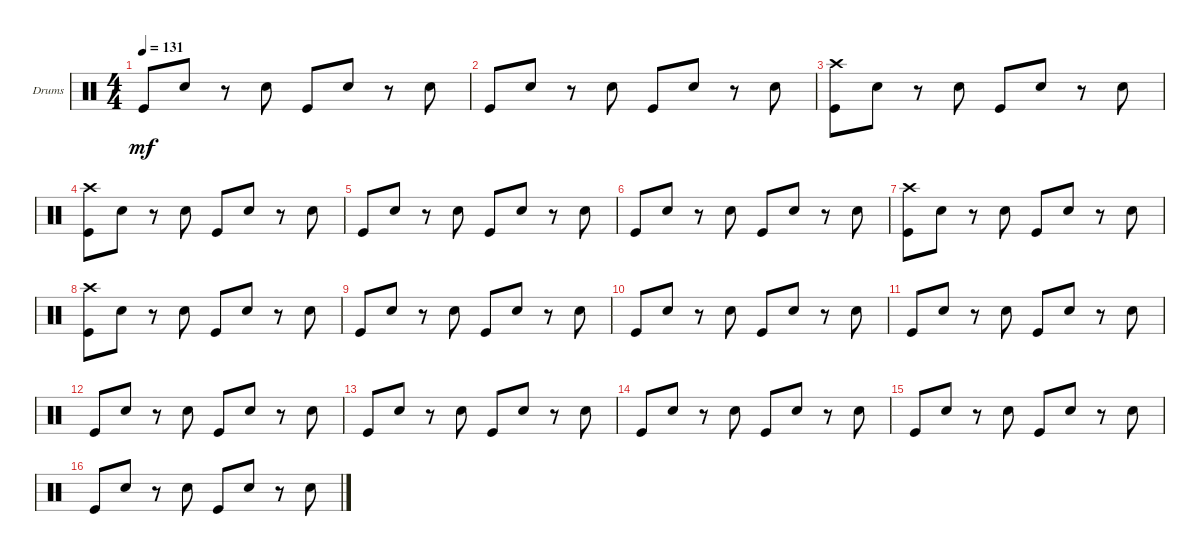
\bracketExtendMode groupsimilarinstruments
\firstSystemTrackNameOrientation horizontal
\otherSystemsTrackNameOrientation horizontal
\track ("Drumkit" "Drums") {instrument percussion}
\staff {score}
\articulation defaults
\ts (4 4)
\tempo 131
\clef neutral
\scale
0.333333
\ks c "Kick (hit)".8{dy mf} "Snare (hit) 2".8
r.8 "Snare (hit) 2".8 "Kick (hit)".8 "Snare (hit) 2".8 r.8 "Snare (hit) 2".8 |
\scale
0.333333 "Kick (hit)".8 "Snare (hit) 2".8 r.8 "Snare (hit) 2".8 "Kick (hit)".8 "Snare (hit) 2".8 r.8 "Snare (hit) 2".8 |
\scale
0.333333 ("Kick (hit)" "Crash high (hit)").8 "Snare (hit) 2".8 r.8 "Snare (hit) 2".8 "Kick (hit)".8 "Snare (hit) 2".8 r.8 "Snare (hit) 2".8 |
\scale
0.333333 ("Kick (hit)" "Crash high (hit)").8 "Snare (hit) 2".8 r.8 "Snare (hit) 2".8 "Kick (hit)".8 "Snare (hit) 2".8 r.8 "Snare (hit) 2".8 |
\scale
0.333333 "Kick (hit)".8 "Snare (hit) 2".8 r.8 "Snare (hit) 2".8 "Kick (hit)".8 "Snare (hit) 2".8 r.8 "Snare (hit) 2".8 |
\scale
0.333333 "Kick (hit)".8 "Snare (hit) 2".8 r.8 "Snare (hit) 2".8 "Kick (hit)".8 "Snare (hit) 2".8 r.8 "Snare (hit) 2".8 |
\scale
0.333333 ("Kick (hit)" "Crash high (hit)").8 "Snare (hit) 2".8 r.8 "Snare (hit) 2".8 "Kick (hit)".8 "Snare (hit) 2".8 r.8 "Snare (hit) 2".8 |
\scale
0.333333 ("Kick (hit)" "Crash high (hit)").8 "Snare (hit) 2".8 r.8 "Snare (hit) 2".8 "Kick (hit)".8 "Snare (hit) 2".8 r.8 "Snare (hit) 2".8 |
\scale
0.333333 "Kick (hit)".8 "Snare (hit) 2".8 r.8 "Snare (hit) 2".8 "Kick (hit)".8 "Snare (hit) 2".8 r.8 "Snare (hit) 2".8 |
\scale
0.333333 "Kick (hit)".8 "Snare (hit) 2".8 r.8 "Snare (hit) 2".8 "Kick (hit)".8 "Snare (hit) 2".8 r.8 "Snare (hit) 2".8 |
\scale
0.333333 "Kick (hit)".8 "Snare (hit) 2".8 r.8 "Snare (hit) 2".8 "Kick (hit)".8 "Snare (hit) 2".8 r.8 "Snare (hit) 2".8 |
\scale
0.333333 "Kick (hit)".8 "Snare (hit) 2".8 r.8 "Snare (hit) 2".8 "Kick (hit)".8 "Snare (hit) 2".8 r.8 "Snare (hit) 2".8 |
\scale
0.333333 "Kick (hit)".8 "Snare (hit) 2".8 r.8 "Snare (hit) 2".8 "Kick (hit)".8 "Snare (hit) 2".8 r.8 "Snare (hit) 2".8 |
\scale
0.333333 "Kick (hit)".8 "Snare (hit) 2".8 r.8 "Snare (hit) 2".8 "Kick (hit)".8 "Snare (hit) 2".8 r.8 "Snare (hit) 2".8 |
\scale
0.333333 "Kick (hit)".8 "Snare (hit) 2".8 r.8 "Snare (hit) 2".8 "Kick (hit)".8 "Snare (hit) 2".8 r.8 "Snare (hit) 2".8 |
\scale
0.333333 "Kick (hit)".8 "Snare (hit) 2".8 r.8 "Snare (hit) 2".8 "Kick (hit)".8 "Snare (hit) 2".8 r.8 "Snare (hit) 2".8
